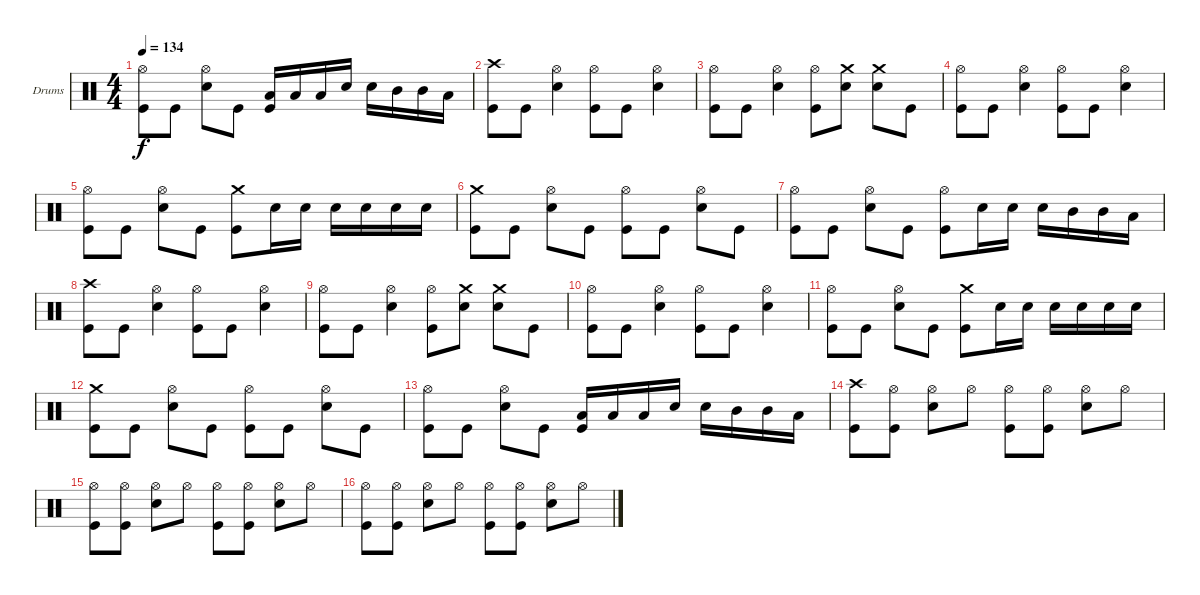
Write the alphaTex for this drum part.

\defaultSystemsLayout 4
\bracketExtendMode groupsimilarinstruments
\firstSystemTrackNameOrientation horizontal
\otherSystemsTrackNameOrientation horizontal
\track ("Drumkit" "Drums") {instrument percussion}
\staff {score}
\articulation defaults
\ts (4 4)
\tempo 134
\clef neutral
\scale
0.333333
\ks c
("Hi-Hat (open)" "Kick (hit)").8{dy f} "Kick (hit)".8 ("Hi-Hat (open)" "Snare (hit) 2").8 "Kick (hit)".8 ("Low Tom (hit)" "Kick (hit)").16 "Low Tom (hit)".16 "Low Tom (hit)".16 "Snare (hit) 2".16 "Snare (hit) 2".16 "Mid Tom (hit)".16 "Mid Tom (hit)".16 "Low Tom (hit)".16 |
\scale
0.333333 ("Crash high (hit)" "Kick (hit)").8 "Kick (hit)".8 ("Hi-Hat (open)" "Snare (hit) 2").4 ("Hi-Hat (open)" "Kick (hit)").8 "Kick (hit)".8 ("Hi-Hat (open)" "Snare (hit) 2").4 |
\scale
0.333333 ("Hi-Hat (open)" "Kick (hit)").8 "Kick (hit)".8 ("Hi-Hat (open)" "Snare (hit) 2").4 ("Hi-Hat (open)" "Kick (hit)").8 ("Crash medium (hit)" "Snare (hit) 2").8 ("Crash medium (hit)" "Snare (hit) 2").8 "Kick (hit)".8 |
\scale
0.333333 ("Hi-Hat (open)" "Kick (hit)").8 "Kick (hit)".8 ("Hi-Hat (open)" "Snare (hit) 2").4 ("Hi-Hat (open)" "Kick (hit)").8 "Kick (hit)".8 ("Hi-Hat (open)" "Snare (hit) 2").4 |
\scale
0.333333 ("Hi-Hat (open)" "Kick (hit)").8 "Kick (hit)".8 ("Hi-Hat (open)" "Snare (hit) 2").8 "Kick (hit)".8 ("Crash medium (hit)" "Kick (hit)").8 "Snare (hit) 2".16 "Snare (hit) 2".16 "Snare (hit) 2".16 "Snare (hit) 2".16 "Snare (hit) 2".16 "Snare (hit) 2".16 |
\scale
0.333333 ("Crash medium (hit)" "Kick (hit)").8 "Kick (hit)".8 ("Hi-Hat (open)" "Snare (hit) 2").8 "Kick (hit)".8 ("Hi-Hat (open)" "Kick (hit)").8 "Kick (hit)".8 ("Hi-Hat (open)" "Snare (hit) 2").8 "Kick (hit)".8 |
\scale
0.333333 ("Hi-Hat (open)" "Kick (hit)").8 "Kick (hit)".8 ("Hi-Hat (open)" "Snare (hit) 2").8 "Kick (hit)".8 ("Hi-Hat (open)" "Kick (hit)").8 "Snare (hit) 2".16 "Snare (hit) 2".16 "Snare (hit) 2".16 "Mid Tom (hit)".16 "Mid Tom (hit)".16 "Low Tom (hit)".16 |
\scale
0.333333 ("Crash high (hit)" "Kick (hit)").8 "Kick (hit)".8 ("Hi-Hat (open)" "Snare (hit) 2").4 ("Hi-Hat (open)" "Kick (hit)").8 "Kick (hit)".8 ("Hi-Hat (open)" "Snare (hit) 2").4 |
\scale
0.333333 ("Hi-Hat (open)" "Kick (hit)").8 "Kick (hit)".8 ("Hi-Hat (open)" "Snare (hit) 2").4 ("Hi-Hat (open)" "Kick (hit)").8 ("Crash medium (hit)" "Snare (hit) 2").8 ("Crash medium (hit)" "Snare (hit) 2").8 "Kick (hit)".8 |
\scale
0.333333 ("Hi-Hat (open)" "Kick (hit)").8 "Kick (hit)".8 ("Hi-Hat (open)" "Snare (hit) 2").4 ("Hi-Hat (open)" "Kick (hit)").8 "Kick (hit)".8 ("Hi-Hat (open)" "Snare (hit) 2").4 |
\scale
0.333333 ("Hi-Hat (open)" "Kick (hit)").8 "Kick (hit)".8 ("Hi-Hat (open)" "Snare (hit) 2").8 "Kick (hit)".8 ("Crash medium (hit)" "Kick (hit)").8 "Snare (hit) 2".16 "Snare (hit) 2".16 "Snare (hit) 2".16 "Snare (hit) 2".16 "Snare (hit) 2".16 "Snare (hit) 2".16 |
\scale
0.333333 ("Crash medium (hit)" "Kick (hit)").8 "Kick (hit)".8 ("Hi-Hat (open)" "Snare (hit) 2").8 "Kick (hit)".8 ("Hi-Hat (open)" "Kick (hit)").8 "Kick (hit)".8 ("Hi-Hat (open)" "Snare (hit) 2").8 "Kick (hit)".8 |
\scale
0.333333 ("Hi-Hat (open)" "Kick (hit)").8 "Kick (hit)".8 ("Hi-Hat (open)" "Snare (hit) 2").8 "Kick (hit)".8 ("Low Tom (hit)" "Kick (hit)").16 "Low Tom (hit)".16 "Low Tom (hit)".16 "Snare (hit) 2".16 "Snare (hit) 2".16 "Mid Tom (hit)".16 "Mid Tom (hit)".16 "Low Tom (hit)".16 |
\scale
0.333333 ("Crash high (hit)" "Kick (hit)").8 ("Hi-Hat (open)" "Kick (hit)").8 ("Hi-Hat (open)" "Snare (hit) 2").8 "Hi-Hat (open)".8 ("Hi-Hat (open)" "Kick (hit)").8 ("Hi-Hat (open)" "Kick (hit)").8 ("Hi-Hat (open)" "Snare (hit) 2").8 "Hi-Hat (open)".8 |
\scale
0.333333 ("Hi-Hat (open)" "Kick (hit)").8 ("Hi-Hat (open)" "Kick (hit)").8 ("Hi-Hat (open)" "Snare (hit) 2").8 "Hi-Hat (open)".8 ("Hi-Hat (open)" "Kick (hit)").8 ("Hi-Hat (open)" "Kick (hit)").8 ("Hi-Hat (open)" "Snare (hit) 2").8 "Hi-Hat (open)".8 |
\scale
0.333333 ("Hi-Hat (open)" "Kick (hit)").8 ("Hi-Hat (open)" "Kick (hit)").8 ("Hi-Hat (open)" "Snare (hit) 2").8 "Hi-Hat (open)".8 ("Hi-Hat (open)" "Kick (hit)").8 ("Hi-Hat (open)" "Kick (hit)").8 ("Hi-Hat (open)" "Snare (hit) 2").8 "Hi-Hat (open)".8
